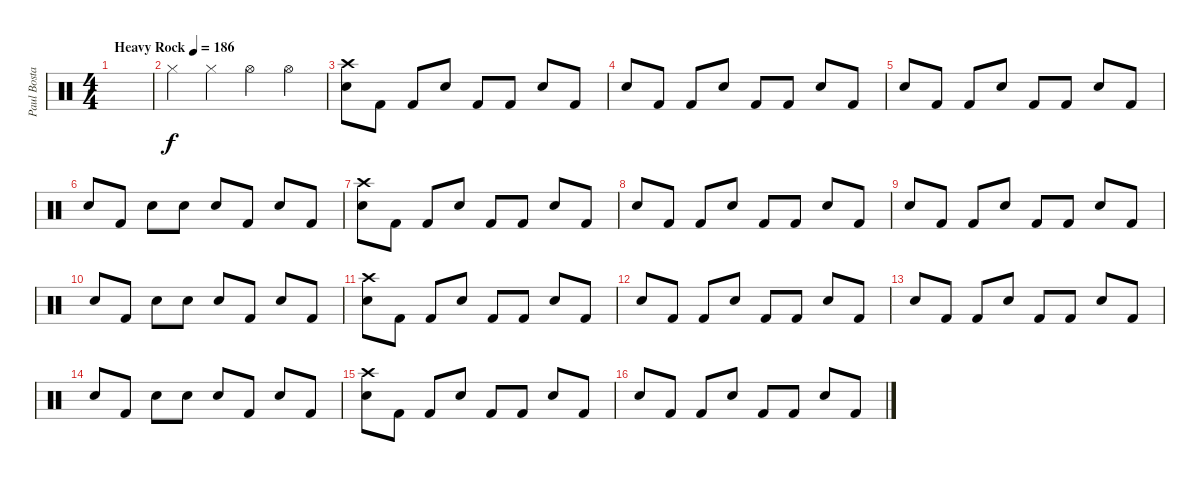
\track ("Paul Bostaph" "Paul Bosta") {instrument percussion}
\staff {score}
\articulation defaults
\ts (4 4)
\tempo (186 "Heavy Rock")
\clef neutral
\ks c
|
"Hi-Hat (closed)".4 "Hi-Hat (closed)".4 "Hi-Hat (open)".4 "Hi-Hat (open)".4 |
("Crash high (hit)" "Electric Snare (hit)").8 "Kick (hit) 2".8 "Kick (hit) 2".8 "Electric Snare (hit)".8 "Kick (hit) 2".8 "Kick (hit) 2".8 "Electric Snare (hit)".8 "Kick (hit) 2".8 |
"Electric Snare (hit)".8 "Kick (hit) 2".8 "Kick (hit) 2".8 "Electric Snare (hit)".8 "Kick (hit) 2".8 "Kick (hit) 2".8 "Electric Snare (hit)".8 "Kick (hit) 2".8 |
"Electric Snare (hit)".8 "Kick (hit) 2".8 "Kick (hit) 2".8 "Electric Snare (hit)".8 "Kick (hit) 2".8 "Kick (hit) 2".8 "Electric Snare (hit)".8 "Kick (hit) 2".8 |
"Electric Snare (hit)".8 "Kick (hit) 2".8 "Electric Snare (hit)".8 "Electric Snare (hit)".8 "Electric Snare (hit)".8 "Kick (hit) 2".8 "Electric Snare (hit)".8 "Kick (hit) 2".8 |
("Crash high (hit)" "Electric Snare (hit)").8 "Kick (hit) 2".8 "Kick (hit) 2".8 "Electric Snare (hit)".8 "Kick (hit) 2".8 "Kick (hit) 2".8 "Electric Snare (hit)".8 "Kick (hit) 2".8 |
"Electric Snare (hit)".8 "Kick (hit) 2".8 "Kick (hit) 2".8 "Electric Snare (hit)".8 "Kick (hit) 2".8 "Kick (hit) 2".8 "Electric Snare (hit)".8 "Kick (hit) 2".8 |
"Electric Snare (hit)".8 "Kick (hit) 2".8 "Kick (hit) 2".8 "Electric Snare (hit)".8 "Kick (hit) 2".8 "Kick (hit) 2".8 "Electric Snare (hit)".8 "Kick (hit) 2".8 |
"Electric Snare (hit)".8 "Kick (hit) 2".8 "Electric Snare (hit)".8 "Electric Snare (hit)".8 "Electric Snare (hit)".8 "Kick (hit) 2".8 "Electric Snare (hit)".8 "Kick (hit) 2".8 |
("Crash high (hit)" "Electric Snare (hit)").8 "Kick (hit) 2".8 "Kick (hit) 2".8 "Electric Snare (hit)".8 "Kick (hit) 2".8 "Kick (hit) 2".8 "Electric Snare (hit)".8 "Kick (hit) 2".8 |
"Electric Snare (hit)".8 "Kick (hit) 2".8 "Kick (hit) 2".8 "Electric Snare (hit)".8 "Kick (hit) 2".8 "Kick (hit) 2".8 "Electric Snare (hit)".8 "Kick (hit) 2".8 |
"Electric Snare (hit)".8 "Kick (hit) 2".8 "Kick (hit) 2".8 "Electric Snare (hit)".8 "Kick (hit) 2".8 "Kick (hit) 2".8 "Electric Snare (hit)".8 "Kick (hit) 2".8 |
"Electric Snare (hit)".8 "Kick (hit) 2".8 "Electric Snare (hit)".8 "Electric Snare (hit)".8 "Electric Snare (hit)".8 "Kick (hit) 2".8 "Electric Snare (hit)".8 "Kick (hit) 2".8 |
("Crash high (hit)" "Electric Snare (hit)").8 "Kick (hit) 2".8 "Kick (hit) 2".8 "Electric Snare (hit)".8 "Kick (hit) 2".8 "Kick (hit) 2".8 "Electric Snare (hit)".8 "Kick (hit) 2".8 |
"Electric Snare (hit)".8 "Kick (hit) 2".8 "Kick (hit) 2".8 "Electric Snare (hit)".8 "Kick (hit) 2".8 "Kick (hit) 2".8 "Electric Snare (hit)".8 "Kick (hit) 2".8
